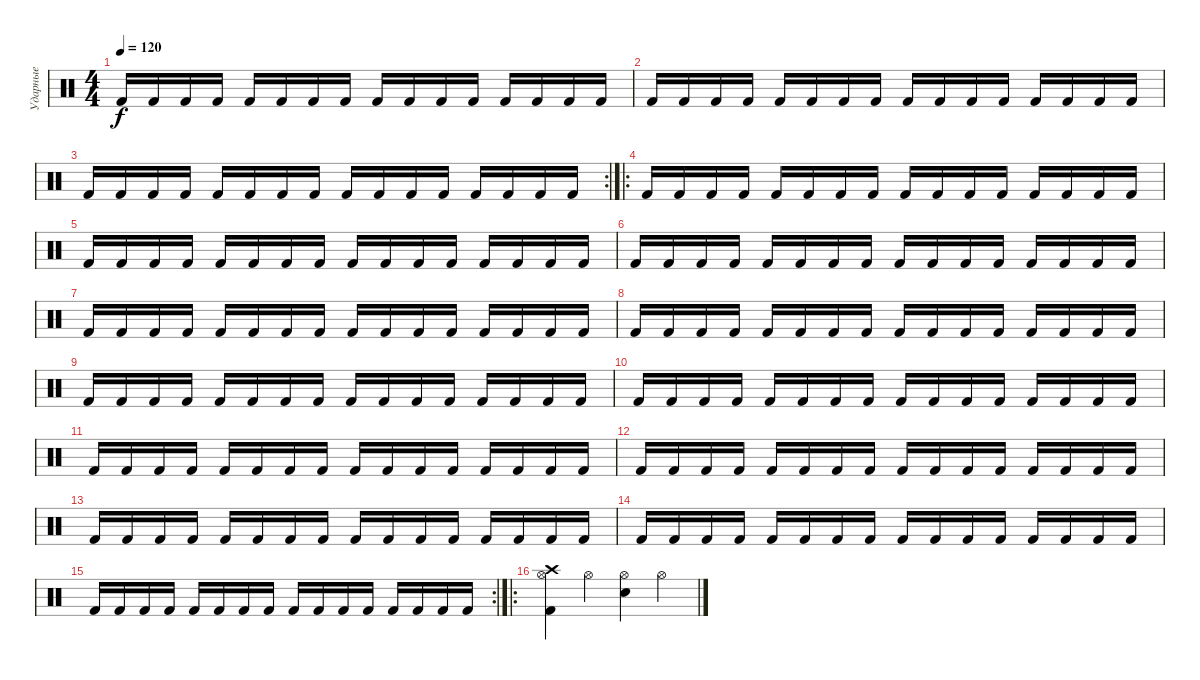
\track ("Ударные" "Ударные") {instrument percussion}
\staff {score}
\articulation defaults
\ts (4 4)
\tempo 120
\clef neutral
\ks c "Kick (hit) 2".16{dy f} "Kick (hit) 2".16 "Kick (hit) 2".16 "Kick (hit) 2".16 "Kick (hit) 2".16 "Kick (hit) 2".16 "Kick (hit) 2".16 "Kick (hit) 2".16 "Kick (hit) 2".16 "Kick (hit) 2".16 "Kick (hit) 2".16 "Kick (hit) 2".16 "Kick (hit) 2".16 "Kick (hit) 2".16 "Kick (hit) 2".16 "Kick (hit) 2".16
|
"Kick (hit) 2".16 "Kick (hit) 2".16 "Kick (hit) 2".16 "Kick (hit) 2".16 "Kick (hit) 2".16 "Kick (hit) 2".16 "Kick (hit) 2".16 "Kick (hit) 2".16 "Kick (hit) 2".16 "Kick (hit) 2".16 "Kick (hit) 2".16 "Kick (hit) 2".16 "Kick (hit) 2".16 "Kick (hit) 2".16 "Kick (hit) 2".16 "Kick (hit) 2".16 |
\rc 2 "Kick (hit) 2".16 "Kick (hit) 2".16 "Kick (hit) 2".16 "Kick (hit) 2".16 "Kick (hit) 2".16 "Kick (hit) 2".16 "Kick (hit) 2".16 "Kick (hit) 2".16 "Kick (hit) 2".16 "Kick (hit) 2".16 "Kick (hit) 2".16 "Kick (hit) 2".16 "Kick (hit) 2".16 "Kick (hit) 2".16 "Kick (hit) 2".16 "Kick (hit) 2".16
|
\ro "Kick (hit) 2".16 "Kick (hit) 2".16 "Kick (hit) 2".16 "Kick (hit) 2".16 "Kick (hit) 2".16 "Kick (hit) 2".16 "Kick (hit) 2".16 "Kick (hit) 2".16 "Kick (hit) 2".16 "Kick (hit) 2".16 "Kick (hit) 2".16 "Kick (hit) 2".16 "Kick (hit) 2".16 "Kick (hit) 2".16 "Kick (hit) 2".16 "Kick (hit) 2".16
|
"Kick (hit) 2".16 "Kick (hit) 2".16 "Kick (hit) 2".16 "Kick (hit) 2".16 "Kick (hit) 2".16 "Kick (hit) 2".16 "Kick (hit) 2".16 "Kick (hit) 2".16 "Kick (hit) 2".16 "Kick (hit) 2".16 "Kick (hit) 2".16 "Kick (hit) 2".16 "Kick (hit) 2".16 "Kick (hit) 2".16 "Kick (hit) 2".16 "Kick (hit) 2".16 |
"Kick (hit) 2".16 "Kick (hit) 2".16 "Kick (hit) 2".16 "Kick (hit) 2".16 "Kick (hit) 2".16 "Kick (hit) 2".16 "Kick (hit) 2".16 "Kick (hit) 2".16 "Kick (hit) 2".16 "Kick (hit) 2".16 "Kick (hit) 2".16 "Kick (hit) 2".16 "Kick (hit) 2".16 "Kick (hit) 2".16 "Kick (hit) 2".16 "Kick (hit) 2".16 |
"Kick (hit) 2".16 "Kick (hit) 2".16 "Kick (hit) 2".16 "Kick (hit) 2".16 "Kick (hit) 2".16 "Kick (hit) 2".16 "Kick (hit) 2".16 "Kick (hit) 2".16 "Kick (hit) 2".16 "Kick (hit) 2".16 "Kick (hit) 2".16 "Kick (hit) 2".16 "Kick (hit) 2".16 "Kick (hit) 2".16 "Kick (hit) 2".16 "Kick (hit) 2".16 |
"Kick (hit) 2".16 "Kick (hit) 2".16 "Kick (hit) 2".16 "Kick (hit) 2".16 "Kick (hit) 2".16 "Kick (hit) 2".16 "Kick (hit) 2".16 "Kick (hit) 2".16 "Kick (hit) 2".16 "Kick (hit) 2".16 "Kick (hit) 2".16 "Kick (hit) 2".16 "Kick (hit) 2".16 "Kick (hit) 2".16 "Kick (hit) 2".16 "Kick (hit) 2".16 |
"Kick (hit) 2".16 "Kick (hit) 2".16 "Kick (hit) 2".16 "Kick (hit) 2".16 "Kick (hit) 2".16 "Kick (hit) 2".16 "Kick (hit) 2".16 "Kick (hit) 2".16 "Kick (hit) 2".16 "Kick (hit) 2".16 "Kick (hit) 2".16 "Kick (hit) 2".16 "Kick (hit) 2".16 "Kick (hit) 2".16 "Kick (hit) 2".16 "Kick (hit) 2".16 |
"Kick (hit) 2".16 "Kick (hit) 2".16 "Kick (hit) 2".16 "Kick (hit) 2".16 "Kick (hit) 2".16 "Kick (hit) 2".16 "Kick (hit) 2".16 "Kick (hit) 2".16 "Kick (hit) 2".16 "Kick (hit) 2".16 "Kick (hit) 2".16 "Kick (hit) 2".16 "Kick (hit) 2".16 "Kick (hit) 2".16 "Kick (hit) 2".16 "Kick (hit) 2".16 |
"Kick (hit) 2".16 "Kick (hit) 2".16 "Kick (hit) 2".16 "Kick (hit) 2".16 "Kick (hit) 2".16 "Kick (hit) 2".16 "Kick (hit) 2".16 "Kick (hit) 2".16 "Kick (hit) 2".16 "Kick (hit) 2".16 "Kick (hit) 2".16 "Kick (hit) 2".16 "Kick (hit) 2".16 "Kick (hit) 2".16 "Kick (hit) 2".16 "Kick (hit) 2".16 |
"Kick (hit) 2".16 "Kick (hit) 2".16 "Kick (hit) 2".16 "Kick (hit) 2".16 "Kick (hit) 2".16 "Kick (hit) 2".16 "Kick (hit) 2".16 "Kick (hit) 2".16 "Kick (hit) 2".16 "Kick (hit) 2".16 "Kick (hit) 2".16 "Kick (hit) 2".16 "Kick (hit) 2".16 "Kick (hit) 2".16 "Kick (hit) 2".16 "Kick (hit) 2".16 |
"Kick (hit) 2".16 "Kick (hit) 2".16 "Kick (hit) 2".16 "Kick (hit) 2".16 "Kick (hit) 2".16 "Kick (hit) 2".16 "Kick (hit) 2".16 "Kick (hit) 2".16 "Kick (hit) 2".16 "Kick (hit) 2".16 "Kick (hit) 2".16 "Kick (hit) 2".16 "Kick (hit) 2".16 "Kick (hit) 2".16 "Kick (hit) 2".16 "Kick (hit) 2".16 |
"Kick (hit) 2".16 "Kick (hit) 2".16 "Kick (hit) 2".16 "Kick (hit) 2".16 "Kick (hit) 2".16 "Kick (hit) 2".16 "Kick (hit) 2".16 "Kick (hit) 2".16 "Kick (hit) 2".16 "Kick (hit) 2".16 "Kick (hit) 2".16 "Kick (hit) 2".16 "Kick (hit) 2".16 "Kick (hit) 2".16 "Kick (hit) 2".16 "Kick (hit) 2".16 |
\rc 2 "Kick (hit) 2".16 "Kick (hit) 2".16 "Kick (hit) 2".16 "Kick (hit) 2".16 "Kick (hit) 2".16 "Kick (hit) 2".16 "Kick (hit) 2".16 "Kick (hit) 2".16 "Kick (hit) 2".16 "Kick (hit) 2".16 "Kick (hit) 2".16 "Kick (hit) 2".16 "Kick (hit) 2".16 "Kick (hit) 2".16 "Kick (hit) 2".16 "Kick (hit) 2".16
|
\ro
("Kick (hit) 2" "Hi-Hat (open)" "Crash high (hit)").4 "Hi-Hat (open)".4 ("Hi-Hat (open)" "Electric Snare (hit)").4 "Hi-Hat (open)".4
